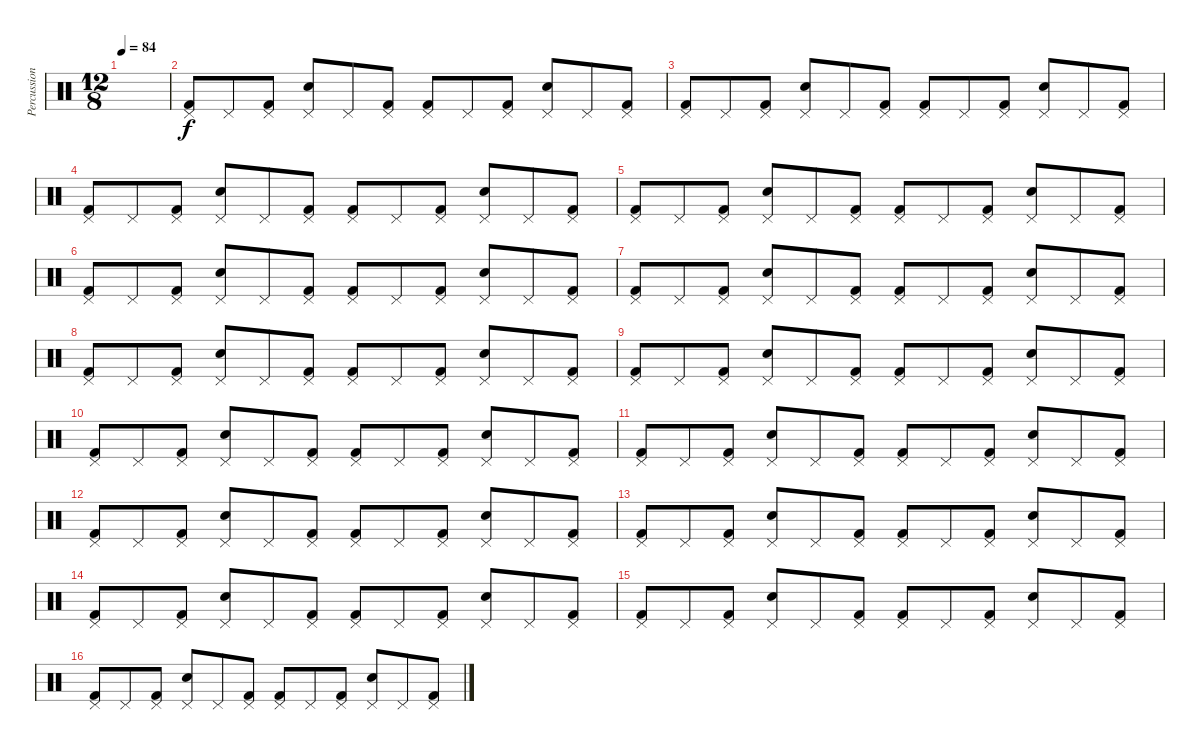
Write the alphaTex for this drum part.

\track ("Percussion" "Percussion") {instrument percussion}
\staff {score}
\articulation defaults
\ts (12 8)
\tempo 84
\clef neutral
\ks c
|
("Kick (hit) 2" "Pedal Hi-Hat (hit)").8 "Pedal Hi-Hat (hit)".8 ("Kick (hit) 2" "Pedal Hi-Hat (hit)").8 ("Snare (hit) 2" "Pedal Hi-Hat (hit)").8 "Pedal Hi-Hat (hit)".8 ("Kick (hit) 2" "Pedal Hi-Hat (hit)").8 ("Kick (hit) 2" "Pedal Hi-Hat (hit)").8 "Pedal Hi-Hat (hit)".8 ("Kick (hit) 2" "Pedal Hi-Hat (hit)").8 ("Snare (hit) 2" "Pedal Hi-Hat (hit)").8 "Pedal Hi-Hat (hit)".8 ("Kick (hit) 2" "Pedal Hi-Hat (hit)").8 |
("Kick (hit) 2" "Pedal Hi-Hat (hit)").8 "Pedal Hi-Hat (hit)".8 ("Kick (hit) 2" "Pedal Hi-Hat (hit)").8 ("Snare (hit) 2" "Pedal Hi-Hat (hit)").8 "Pedal Hi-Hat (hit)".8 ("Kick (hit) 2" "Pedal Hi-Hat (hit)").8 ("Kick (hit) 2" "Pedal Hi-Hat (hit)").8 "Pedal Hi-Hat (hit)".8 ("Kick (hit) 2" "Pedal Hi-Hat (hit)").8 ("Snare (hit) 2" "Pedal Hi-Hat (hit)").8 "Pedal Hi-Hat (hit)".8 ("Kick (hit) 2" "Pedal Hi-Hat (hit)").8 |
("Kick (hit) 2" "Pedal Hi-Hat (hit)").8 "Pedal Hi-Hat (hit)".8 ("Kick (hit) 2" "Pedal Hi-Hat (hit)").8 ("Snare (hit) 2" "Pedal Hi-Hat (hit)").8 "Pedal Hi-Hat (hit)".8 ("Kick (hit) 2" "Pedal Hi-Hat (hit)").8 ("Kick (hit) 2" "Pedal Hi-Hat (hit)").8 "Pedal Hi-Hat (hit)".8 ("Kick (hit) 2" "Pedal Hi-Hat (hit)").8 ("Snare (hit) 2" "Pedal Hi-Hat (hit)").8 "Pedal Hi-Hat (hit)".8 ("Kick (hit) 2" "Pedal Hi-Hat (hit)").8 |
("Kick (hit) 2" "Pedal Hi-Hat (hit)").8 "Pedal Hi-Hat (hit)".8 ("Kick (hit) 2" "Pedal Hi-Hat (hit)").8 ("Snare (hit) 2" "Pedal Hi-Hat (hit)").8 "Pedal Hi-Hat (hit)".8 ("Kick (hit) 2" "Pedal Hi-Hat (hit)").8 ("Kick (hit) 2" "Pedal Hi-Hat (hit)").8 "Pedal Hi-Hat (hit)".8 ("Kick (hit) 2" "Pedal Hi-Hat (hit)").8 ("Snare (hit) 2" "Pedal Hi-Hat (hit)").8 "Pedal Hi-Hat (hit)".8 ("Kick (hit) 2" "Pedal Hi-Hat (hit)").8 |
("Kick (hit) 2" "Pedal Hi-Hat (hit)").8 "Pedal Hi-Hat (hit)".8 ("Kick (hit) 2" "Pedal Hi-Hat (hit)").8 ("Snare (hit) 2" "Pedal Hi-Hat (hit)").8 "Pedal Hi-Hat (hit)".8 ("Kick (hit) 2" "Pedal Hi-Hat (hit)").8 ("Kick (hit) 2" "Pedal Hi-Hat (hit)").8 "Pedal Hi-Hat (hit)".8 ("Kick (hit) 2" "Pedal Hi-Hat (hit)").8 ("Snare (hit) 2" "Pedal Hi-Hat (hit)").8 "Pedal Hi-Hat (hit)".8 ("Kick (hit) 2" "Pedal Hi-Hat (hit)").8 |
("Kick (hit) 2" "Pedal Hi-Hat (hit)").8 "Pedal Hi-Hat (hit)".8 ("Kick (hit) 2" "Pedal Hi-Hat (hit)").8 ("Snare (hit) 2" "Pedal Hi-Hat (hit)").8 "Pedal Hi-Hat (hit)".8 ("Kick (hit) 2" "Pedal Hi-Hat (hit)").8 ("Kick (hit) 2" "Pedal Hi-Hat (hit)").8 "Pedal Hi-Hat (hit)".8 ("Kick (hit) 2" "Pedal Hi-Hat (hit)").8 ("Snare (hit) 2" "Pedal Hi-Hat (hit)").8 "Pedal Hi-Hat (hit)".8 ("Kick (hit) 2" "Pedal Hi-Hat (hit)").8 |
("Kick (hit) 2" "Pedal Hi-Hat (hit)").8 "Pedal Hi-Hat (hit)".8 ("Kick (hit) 2" "Pedal Hi-Hat (hit)").8 ("Snare (hit) 2" "Pedal Hi-Hat (hit)").8 "Pedal Hi-Hat (hit)".8 ("Kick (hit) 2" "Pedal Hi-Hat (hit)").8 ("Kick (hit) 2" "Pedal Hi-Hat (hit)").8 "Pedal Hi-Hat (hit)".8 ("Kick (hit) 2" "Pedal Hi-Hat (hit)").8 ("Snare (hit) 2" "Pedal Hi-Hat (hit)").8 "Pedal Hi-Hat (hit)".8 ("Kick (hit) 2" "Pedal Hi-Hat (hit)").8 |
("Kick (hit) 2" "Pedal Hi-Hat (hit)").8 "Pedal Hi-Hat (hit)".8 ("Kick (hit) 2" "Pedal Hi-Hat (hit)").8 ("Snare (hit) 2" "Pedal Hi-Hat (hit)").8 "Pedal Hi-Hat (hit)".8 ("Kick (hit) 2" "Pedal Hi-Hat (hit)").8 ("Kick (hit) 2" "Pedal Hi-Hat (hit)").8 "Pedal Hi-Hat (hit)".8 ("Kick (hit) 2" "Pedal Hi-Hat (hit)").8 ("Snare (hit) 2" "Pedal Hi-Hat (hit)").8 "Pedal Hi-Hat (hit)".8 ("Kick (hit) 2" "Pedal Hi-Hat (hit)").8 |
("Kick (hit) 2" "Pedal Hi-Hat (hit)").8 "Pedal Hi-Hat (hit)".8 ("Kick (hit) 2" "Pedal Hi-Hat (hit)").8 ("Snare (hit) 2" "Pedal Hi-Hat (hit)").8 "Pedal Hi-Hat (hit)".8 ("Kick (hit) 2" "Pedal Hi-Hat (hit)").8 ("Kick (hit) 2" "Pedal Hi-Hat (hit)").8 "Pedal Hi-Hat (hit)".8 ("Kick (hit) 2" "Pedal Hi-Hat (hit)").8 ("Snare (hit) 2" "Pedal Hi-Hat (hit)").8 "Pedal Hi-Hat (hit)".8 ("Kick (hit) 2" "Pedal Hi-Hat (hit)").8 |
("Kick (hit) 2" "Pedal Hi-Hat (hit)").8 "Pedal Hi-Hat (hit)".8 ("Kick (hit) 2" "Pedal Hi-Hat (hit)").8 ("Snare (hit) 2" "Pedal Hi-Hat (hit)").8 "Pedal Hi-Hat (hit)".8 ("Kick (hit) 2" "Pedal Hi-Hat (hit)").8 ("Kick (hit) 2" "Pedal Hi-Hat (hit)").8 "Pedal Hi-Hat (hit)".8 ("Kick (hit) 2" "Pedal Hi-Hat (hit)").8 ("Snare (hit) 2" "Pedal Hi-Hat (hit)").8 "Pedal Hi-Hat (hit)".8 ("Kick (hit) 2" "Pedal Hi-Hat (hit)").8 |
("Kick (hit) 2" "Pedal Hi-Hat (hit)").8 "Pedal Hi-Hat (hit)".8 ("Kick (hit) 2" "Pedal Hi-Hat (hit)").8 ("Snare (hit) 2" "Pedal Hi-Hat (hit)").8 "Pedal Hi-Hat (hit)".8 ("Kick (hit) 2" "Pedal Hi-Hat (hit)").8 ("Kick (hit) 2" "Pedal Hi-Hat (hit)").8 "Pedal Hi-Hat (hit)".8 ("Kick (hit) 2" "Pedal Hi-Hat (hit)").8 ("Snare (hit) 2" "Pedal Hi-Hat (hit)").8 "Pedal Hi-Hat (hit)".8 ("Kick (hit) 2" "Pedal Hi-Hat (hit)").8 |
("Kick (hit) 2" "Pedal Hi-Hat (hit)").8 "Pedal Hi-Hat (hit)".8 ("Kick (hit) 2" "Pedal Hi-Hat (hit)").8 ("Snare (hit) 2" "Pedal Hi-Hat (hit)").8 "Pedal Hi-Hat (hit)".8 ("Kick (hit) 2" "Pedal Hi-Hat (hit)").8 ("Kick (hit) 2" "Pedal Hi-Hat (hit)").8 "Pedal Hi-Hat (hit)".8 ("Kick (hit) 2" "Pedal Hi-Hat (hit)").8 ("Snare (hit) 2" "Pedal Hi-Hat (hit)").8 "Pedal Hi-Hat (hit)".8 ("Kick (hit) 2" "Pedal Hi-Hat (hit)").8 |
("Kick (hit) 2" "Pedal Hi-Hat (hit)").8 "Pedal Hi-Hat (hit)".8 ("Kick (hit) 2" "Pedal Hi-Hat (hit)").8 ("Snare (hit) 2" "Pedal Hi-Hat (hit)").8 "Pedal Hi-Hat (hit)".8 ("Kick (hit) 2" "Pedal Hi-Hat (hit)").8 ("Kick (hit) 2" "Pedal Hi-Hat (hit)").8 "Pedal Hi-Hat (hit)".8 ("Kick (hit) 2" "Pedal Hi-Hat (hit)").8 ("Snare (hit) 2" "Pedal Hi-Hat (hit)").8 "Pedal Hi-Hat (hit)".8 ("Kick (hit) 2" "Pedal Hi-Hat (hit)").8 |
("Kick (hit) 2" "Pedal Hi-Hat (hit)").8 "Pedal Hi-Hat (hit)".8 ("Kick (hit) 2" "Pedal Hi-Hat (hit)").8 ("Snare (hit) 2" "Pedal Hi-Hat (hit)").8 "Pedal Hi-Hat (hit)".8 ("Kick (hit) 2" "Pedal Hi-Hat (hit)").8 ("Kick (hit) 2" "Pedal Hi-Hat (hit)").8 "Pedal Hi-Hat (hit)".8 ("Kick (hit) 2" "Pedal Hi-Hat (hit)").8 ("Snare (hit) 2" "Pedal Hi-Hat (hit)").8 "Pedal Hi-Hat (hit)".8 ("Kick (hit) 2" "Pedal Hi-Hat (hit)").8 |
("Kick (hit) 2" "Pedal Hi-Hat (hit)").8 "Pedal Hi-Hat (hit)".8 ("Kick (hit) 2" "Pedal Hi-Hat (hit)").8 ("Snare (hit) 2" "Pedal Hi-Hat (hit)").8 "Pedal Hi-Hat (hit)".8 ("Kick (hit) 2" "Pedal Hi-Hat (hit)").8 ("Kick (hit) 2" "Pedal Hi-Hat (hit)").8 "Pedal Hi-Hat (hit)".8 ("Kick (hit) 2" "Pedal Hi-Hat (hit)").8 ("Snare (hit) 2" "Pedal Hi-Hat (hit)").8 "Pedal Hi-Hat (hit)".8 ("Kick (hit) 2" "Pedal Hi-Hat (hit)").8
